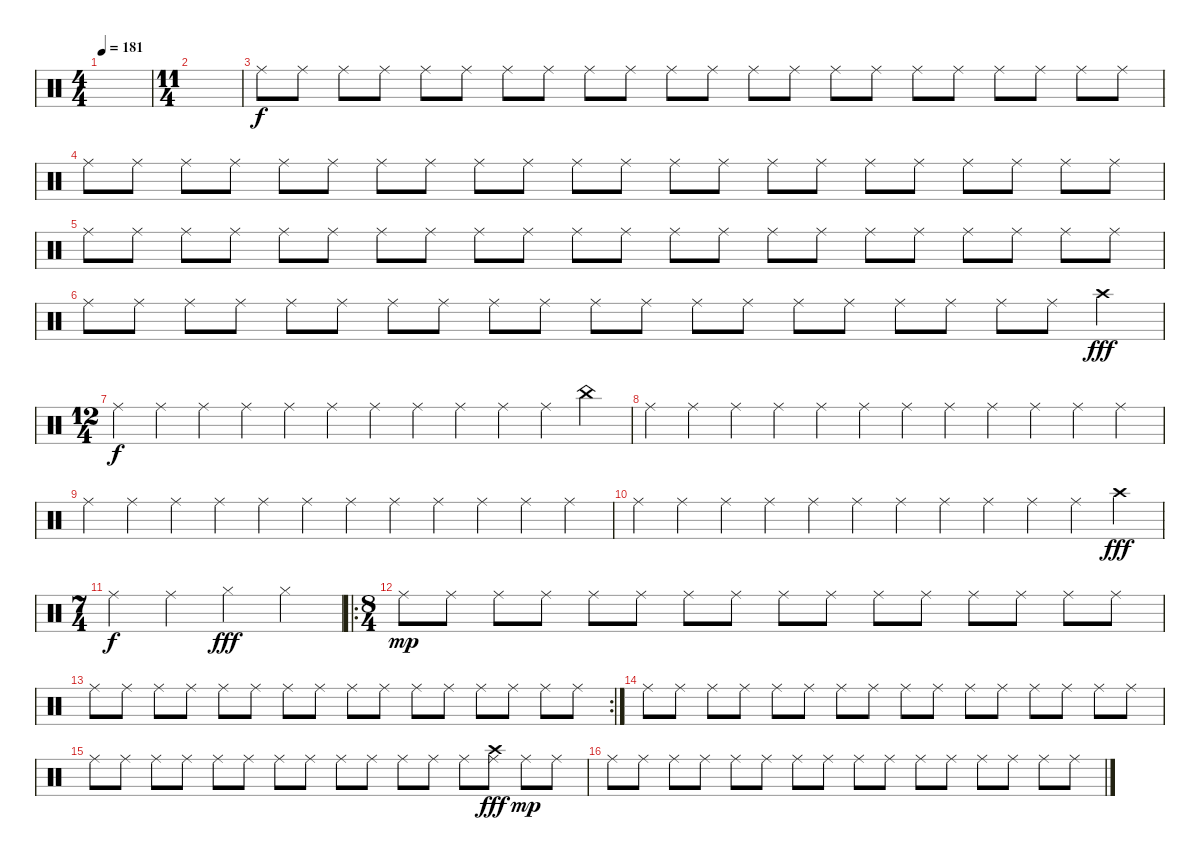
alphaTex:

\track "" {instrument percussion}
\staff {score}
\articulation defaults
\ts (4 4)
\tempo 181
\clef neutral
\ks c
|
\ts (11 4)
|
"Ride (middle)".8 "Ride (middle)".8 "Ride (middle)".8 "Ride (middle)".8 "Ride (middle)".8 "Ride (middle)".8 "Ride (middle)".8 "Ride (middle)".8 "Ride (middle)".8 "Ride (middle)".8 "Ride (middle)".8 "Ride (middle)".8 "Ride (middle)".8 "Ride (middle)".8 "Ride (middle)".8 "Ride (middle)".8 "Ride (middle)".8 "Ride (middle)".8 "Ride (middle)".8 "Ride (middle)".8 "Ride (middle)".8 "Ride (middle)".8 |
"Ride (middle)".8 "Ride (middle)".8 "Ride (middle)".8 "Ride (middle)".8 "Ride (middle)".8 "Ride (middle)".8 "Ride (middle)".8 "Ride (middle)".8 "Ride (middle)".8 "Ride (middle)".8 "Ride (middle)".8 "Ride (middle)".8 "Ride (middle)".8 "Ride (middle)".8 "Ride (middle)".8 "Ride (middle)".8 "Ride (middle)".8 "Ride (middle)".8 "Ride (middle)".8 "Ride (middle)".8 "Ride (middle)".8 "Ride (middle)".8 |
"Ride (middle)".8 "Ride (middle)".8 "Ride (middle)".8 "Ride (middle)".8 "Ride (middle)".8 "Ride (middle)".8 "Ride (middle)".8 "Ride (middle)".8 "Ride (middle)".8 "Ride (middle)".8 "Ride (middle)".8 "Ride (middle)".8 "Ride (middle)".8 "Ride (middle)".8 "Ride (middle)".8 "Ride (middle)".8 "Ride (middle)".8 "Ride (middle)".8 "Ride (middle)".8 "Ride (middle)".8 "Ride (middle)".8 "Ride (middle)".8 |
"Ride (middle)".8 "Ride (middle)".8 "Ride (middle)".8 "Ride (middle)".8 "Ride (middle)".8 "Ride (middle)".8 "Ride (middle)".8 "Ride (middle)".8 "Ride (middle)".8 "Ride (middle)".8 "Ride (middle)".8 "Ride (middle)".8 "Ride (middle)".8 "Ride (middle)".8 "Ride (middle)".8 "Ride (middle)".8 "Ride (middle)".8 "Ride (middle)".8 "Ride (middle)".8 "Ride (middle)".8 "Crash high (hit)".4{dy fff} |
\ts (12 4)
"Ride (middle)".4{dy f} "Ride (middle)".4 "Ride (middle)".4 "Ride (middle)".4 "Ride (middle)".4 "Ride (middle)".4 "Ride (middle)".4 "Ride (middle)".4 "Ride (middle)".4 "Ride (middle)".4 "Ride (middle)".4 "China (hit)".4 |
"Ride (middle)".4 "Ride (middle)".4 "Ride (middle)".4 "Ride (middle)".4 "Ride (middle)".4 "Ride (middle)".4 "Ride (middle)".4 "Ride (middle)".4 "Ride (middle)".4 "Ride (middle)".4 "Ride (middle)".4 "Ride (middle)".4 |
"Ride (middle)".4 "Ride (middle)".4 "Ride (middle)".4 "Ride (middle)".4 "Ride (middle)".4 "Ride (middle)".4 "Ride (middle)".4 "Ride (middle)".4 "Ride (middle)".4 "Ride (middle)".4 "Ride (middle)".4 "Ride (middle)".4 |
"Ride (middle)".4 "Ride (middle)".4 "Ride (middle)".4 "Ride (middle)".4 "Ride (middle)".4 "Ride (middle)".4 "Ride (middle)".4 "Ride (middle)".4 "Ride (middle)".4 "Ride (middle)".4 "Ride (middle)".4 "Crash high (hit)".4{dy fff} |
\ts (7 4)
"Ride (middle)".4{dy f} "Ride (middle)".4 "Hi-Hat (closed)".4{dy fff} "Hi-Hat (closed)".4 |
\ro
\ts (8 4)
"Ride (middle)".8{dy mp} "Ride (middle)".8 "Ride (middle)".8 "Ride (middle)".8 "Ride (middle)".8 "Ride (middle)".8 "Ride (middle)".8 "Ride (middle)".8 "Ride (middle)".8 "Ride (middle)".8 "Ride (middle)".8 "Ride (middle)".8 "Ride (middle)".8 "Ride (middle)".8 "Ride (middle)".8 "Ride (middle)".8 |
\rc 2 "Ride (middle)".8 "Ride (middle)".8 "Ride (middle)".8 "Ride (middle)".8 "Ride (middle)".8 "Ride (middle)".8 "Ride (middle)".8 "Ride (middle)".8 "Ride (middle)".8 "Ride (middle)".8 "Ride (middle)".8 "Ride (middle)".8 "Ride (middle)".8 "Ride (middle)".8 "Ride (middle)".8 "Ride (middle)".8
|
"Ride (middle)".8 "Ride (middle)".8 "Ride (middle)".8 "Ride (middle)".8 "Ride (middle)".8 "Ride (middle)".8 "Ride (middle)".8 "Ride (middle)".8 "Ride (middle)".8 "Ride (middle)".8 "Ride (middle)".8 "Ride (middle)".8 "Ride (middle)".8 "Ride (middle)".8 "Ride (middle)".8 "Ride (middle)".8 |
"Ride (middle)".8 "Ride (middle)".8 "Ride (middle)".8 "Ride (middle)".8 "Ride (middle)".8 "Ride (middle)".8 "Ride (middle)".8 "Ride (middle)".8 "Ride (middle)".8 "Ride (middle)".8 "Ride (middle)".8 "Ride (middle)".8 "Ride (middle)".8 ("Ride (middle)" "Crash high (hit)").8{dy fff} "Ride (middle)".8{dy mp} "Ride (middle)".8 |
"Ride (middle)".8 "Ride (middle)".8 "Ride (middle)".8 "Ride (middle)".8 "Ride (middle)".8 "Ride (middle)".8 "Ride (middle)".8 "Ride (middle)".8 "Ride (middle)".8 "Ride (middle)".8 "Ride (middle)".8 "Ride (middle)".8 "Ride (middle)".8 "Ride (middle)".8 "Ride (middle)".8 "Ride (middle)".8
